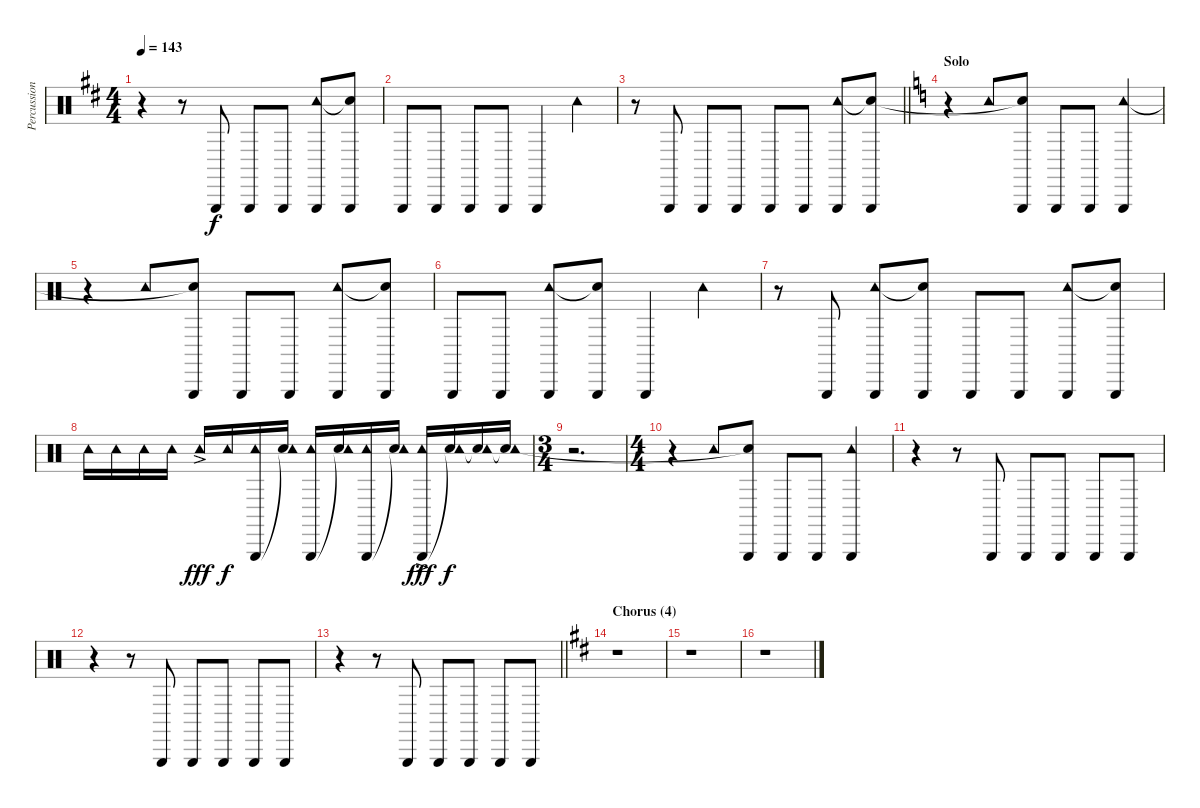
\track ("Percussion" "Percussion") {instrument percussion}
\staff {score}
\articulation defaults
\ts (4 4)
\tempo 143
\clef neutral
\ks d
r.4{dy f} r.8 "Triangle (hit)".8 "Triangle (hit)".8 "Triangle (hit)".8 ("Triangle (hit)" "Tambourine (hit)").8 ("Triangle (hit)" "Snare (hit)"{t}).8 |
"Triangle (hit)".8 "Triangle (hit)".8 "Triangle (hit)".8 "Triangle (hit)".8 "Triangle (hit)".4 "Tambourine (hit)".4 |
\barLineRight lightlight
r.8 "Triangle (hit)".8 "Triangle (hit)".8 "Triangle (hit)".8 "Triangle (hit)".8 "Triangle (hit)".8 ("Triangle (hit)" "Tambourine (hit)").8 ("Triangle (hit)" "Snare (hit)"{t}).8 |
\section ("" "Solo")
\ks aminor
r.4 "Tambourine (hit)".8 ("Triangle (hit)" "Snare (hit)"{t}).8 "Triangle (hit)".8 "Triangle (hit)".8 ("Triangle (hit)" "Tambourine (hit)").4 |
r.4 "Tambourine (hit)".8 ("Triangle (hit)" "Snare (hit)"{t}).8 "Triangle (hit)".8 "Triangle (hit)".8 ("Triangle (hit)" "Tambourine (hit)").8 ("Triangle (hit)" "Snare (hit)"{t}).8 |
"Triangle (hit)".8 "Triangle (hit)".8 ("Triangle (hit)" "Tambourine (hit)").8 ("Triangle (hit)" "Snare (hit)"{t}).8 "Triangle (hit)".4 "Tambourine (hit)".4 |
r.8 "Triangle (hit)".8 ("Triangle (hit)" "Tambourine (hit)").8 ("Triangle (hit)" "Snare (hit)"{t}).8 "Triangle (hit)".8 "Triangle (hit)".8 ("Triangle (hit)" "Tambourine (hit)").8 ("Triangle (hit)" "Snare (hit)"{t}).8 |
"Tambourine (hit)".16 "Tambourine (hit)".16 "Tambourine (hit)".16 "Tambourine (hit)".16 "Tambourine (hit)"{ac}.16{dy fff} "Tambourine (hit)".16{dy f} ("Triangle (hit)" "Tambourine (hit)").16 ("Snare (hit)"{t} "Tambourine (hit)").16 ("Triangle (hit)" "Tambourine (hit)").16 ("Snare (hit)"{t} "Tambourine (hit)").16 ("Triangle (hit)" "Tambourine (hit)").16 ("Snare (hit)"{t} "Tambourine (hit)").16 ("Triangle (hit)" "Tambourine (hit)"{ac}).16{dy fff} ("Snare (hit)"{t} "Tambourine (hit)").16{dy f} ("Snare (hit)"{t} "Tambourine (hit)").16 ("Snare (hit)"{t} "Tambourine (hit)").16 |
\ts (3 4)
r.2{d} |
\ts (4 4)
r.4 "Tambourine (hit)".8 ("Triangle (hit)" "Snare (hit)"{t}).8 "Triangle (hit)".8 "Triangle (hit)".8 ("Triangle (hit)" "Tambourine (hit)").4 |
r.4 r.8 "Triangle (hit)".8 "Triangle (hit)".8 "Triangle (hit)".8 "Triangle (hit)".8 "Triangle (hit)".8 |
r.4 r.8 "Triangle (hit)".8 "Triangle (hit)".8 "Triangle (hit)".8 "Triangle (hit)".8 "Triangle (hit)".8 |
\barLineRight lightlight
r.4 r.8 "Triangle (hit)".8 "Triangle (hit)".8 "Triangle (hit)".8 "Triangle (hit)".8 "Triangle (hit)".8 |
\section ("" "Chorus (4)")
\ks d
r.1 |
r.1 |
r.1
